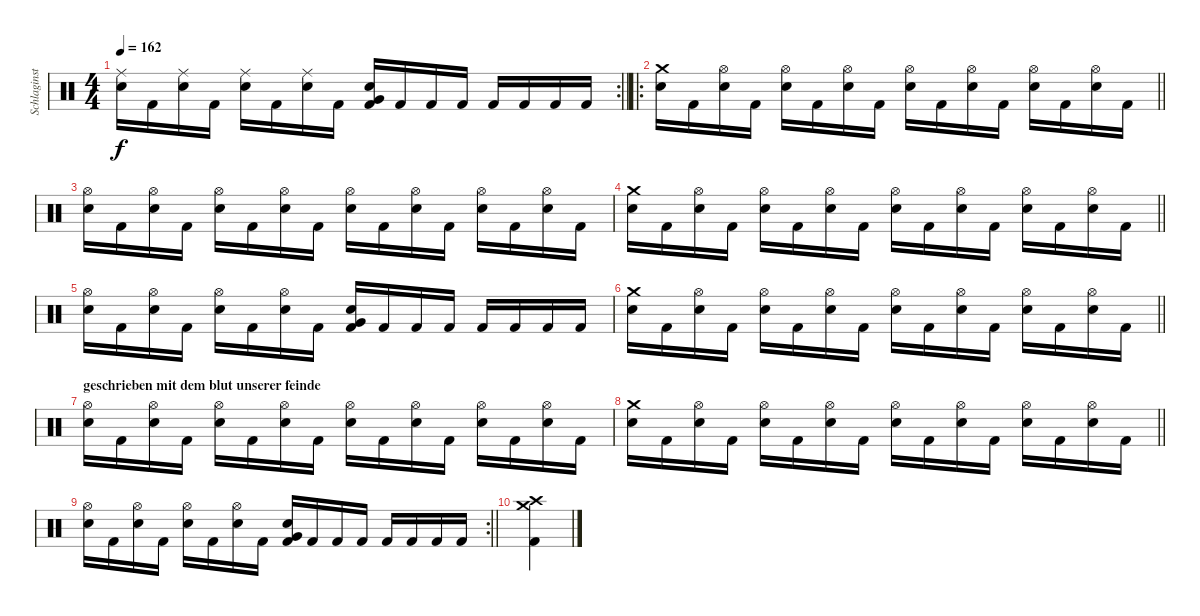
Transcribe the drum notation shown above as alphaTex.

\track ("Schlaginstrumente - Auswahl" "Schlaginst") {instrument percussion}
\staff {score}
\articulation defaults
\rc 2
\ts (4 4)
\tempo 162
\clef neutral
\barLineRight lightlight
\ks c
("Ride (middle)" "Electric Snare (hit)").16{dy f} "Kick (hit) 2".16 ("Ride (middle)" "Electric Snare (hit)").16 "Kick (hit) 2".16 ("Ride (middle)" "Electric Snare (hit)").16 "Kick (hit) 2".16 ("Ride (middle)" "Electric Snare (hit)").16 "Kick (hit) 2".16 ("Very Low Tom (hit)" "Electric Snare (hit)" "Kick (hit) 2").16 "Kick (hit) 2".16 "Kick (hit) 2".16 "Kick (hit) 2".16 "Kick (hit) 2".16 "Kick (hit) 2".16 "Kick (hit) 2".16 "Kick (hit) 2".16 |
\ro
\barLineRight lightlight
("Crash medium (hit)" "Electric Snare (hit)").16 "Kick (hit) 2".16 ("Hi-Hat (open)" "Electric Snare (hit)").16 "Kick (hit) 2".16 ("Hi-Hat (open)" "Electric Snare (hit)").16 "Kick (hit) 2".16 ("Hi-Hat (open)" "Electric Snare (hit)").16 "Kick (hit) 2".16 ("Hi-Hat (open)" "Electric Snare (hit)").16 "Kick (hit) 2".16 ("Hi-Hat (open)" "Electric Snare (hit)").16 "Kick (hit) 2".16 ("Hi-Hat (open)" "Electric Snare (hit)").16 "Kick (hit) 2".16 ("Hi-Hat (open)" "Electric Snare (hit)").16 "Kick (hit) 2".16 |
("Hi-Hat (open)" "Electric Snare (hit)").16 "Kick (hit) 2".16 ("Hi-Hat (open)" "Electric Snare (hit)").16 "Kick (hit) 2".16 ("Hi-Hat (open)" "Electric Snare (hit)").16 "Kick (hit) 2".16 ("Hi-Hat (open)" "Electric Snare (hit)").16 "Kick (hit) 2".16 ("Hi-Hat (open)" "Electric Snare (hit)").16 "Kick (hit) 2".16 ("Hi-Hat (open)" "Electric Snare (hit)").16 "Kick (hit) 2".16 ("Hi-Hat (open)" "Electric Snare (hit)").16 "Kick (hit) 2".16 ("Hi-Hat (open)" "Electric Snare (hit)").16 "Kick (hit) 2".16 |
\barLineRight lightlight
("Crash medium (hit)" "Electric Snare (hit)").16 "Kick (hit) 2".16 ("Hi-Hat (open)" "Electric Snare (hit)").16 "Kick (hit) 2".16 ("Hi-Hat (open)" "Electric Snare (hit)").16 "Kick (hit) 2".16 ("Hi-Hat (open)" "Electric Snare (hit)").16 "Kick (hit) 2".16 ("Hi-Hat (open)" "Electric Snare (hit)").16 "Kick (hit) 2".16 ("Hi-Hat (open)" "Electric Snare (hit)").16 "Kick (hit) 2".16 ("Hi-Hat (open)" "Electric Snare (hit)").16 "Kick (hit) 2".16 ("Hi-Hat (open)" "Electric Snare (hit)").16 "Kick (hit) 2".16 |
("Hi-Hat (open)" "Electric Snare (hit)").16 "Kick (hit) 2".16 ("Hi-Hat (open)" "Electric Snare (hit)").16 "Kick (hit) 2".16 ("Hi-Hat (open)" "Electric Snare (hit)").16 "Kick (hit) 2".16 ("Hi-Hat (open)" "Electric Snare (hit)").16 "Kick (hit) 2".16 ("Very Low Tom (hit)" "Electric Snare (hit)" "Kick (hit) 2").16 "Kick (hit) 2".16 "Kick (hit) 2".16 "Kick (hit) 2".16 "Kick (hit) 2".16 "Kick (hit) 2".16 "Kick (hit) 2".16 "Kick (hit) 2".16 |
\barLineRight lightlight
("Crash medium (hit)" "Electric Snare (hit)").16 "Kick (hit) 2".16 ("Hi-Hat (open)" "Electric Snare (hit)").16 "Kick (hit) 2".16 ("Hi-Hat (open)" "Electric Snare (hit)").16 "Kick (hit) 2".16 ("Hi-Hat (open)" "Electric Snare (hit)").16 "Kick (hit) 2".16 ("Hi-Hat (open)" "Electric Snare (hit)").16 "Kick (hit) 2".16 ("Hi-Hat (open)" "Electric Snare (hit)").16 "Kick (hit) 2".16 ("Hi-Hat (open)" "Electric Snare (hit)").16 "Kick (hit) 2".16 ("Hi-Hat (open)" "Electric Snare (hit)").16 "Kick (hit) 2".16 |
\section ("" "geschrieben mit dem blut unserer feinde")
("Hi-Hat (open)" "Electric Snare (hit)").16 "Kick (hit) 2".16 ("Hi-Hat (open)" "Electric Snare (hit)").16 "Kick (hit) 2".16 ("Hi-Hat (open)" "Electric Snare (hit)").16 "Kick (hit) 2".16 ("Hi-Hat (open)" "Electric Snare (hit)").16 "Kick (hit) 2".16 ("Hi-Hat (open)" "Electric Snare (hit)").16 "Kick (hit) 2".16 ("Hi-Hat (open)" "Electric Snare (hit)").16 "Kick (hit) 2".16 ("Hi-Hat (open)" "Electric Snare (hit)").16 "Kick (hit) 2".16 ("Hi-Hat (open)" "Electric Snare (hit)").16 "Kick (hit) 2".16 |
\barLineRight lightlight
("Crash medium (hit)" "Electric Snare (hit)").16 "Kick (hit) 2".16 ("Hi-Hat (open)" "Electric Snare (hit)").16 "Kick (hit) 2".16 ("Hi-Hat (open)" "Electric Snare (hit)").16 "Kick (hit) 2".16 ("Hi-Hat (open)" "Electric Snare (hit)").16 "Kick (hit) 2".16 ("Hi-Hat (open)" "Electric Snare (hit)").16 "Kick (hit) 2".16 ("Hi-Hat (open)" "Electric Snare (hit)").16 "Kick (hit) 2".16 ("Hi-Hat (open)" "Electric Snare (hit)").16 "Kick (hit) 2".16 ("Hi-Hat (open)" "Electric Snare (hit)").16 "Kick (hit) 2".16 |
\rc 2
\barLineRight lightlight
("Hi-Hat (open)" "Electric Snare (hit)").16 "Kick (hit) 2".16 ("Hi-Hat (open)" "Electric Snare (hit)").16 "Kick (hit) 2".16 ("Hi-Hat (open)" "Electric Snare (hit)").16 "Kick (hit) 2".16 ("Hi-Hat (open)" "Electric Snare (hit)").16 "Kick (hit) 2".16 ("Very Low Tom (hit)" "Electric Snare (hit)" "Kick (hit) 2").16 "Kick (hit) 2".16 "Kick (hit) 2".16 "Kick (hit) 2".16 "Kick (hit) 2".16 "Kick (hit) 2".16 "Kick (hit) 2".16 "Kick (hit) 2".16 |
("Crash high (hit)" "Crash medium (hit)" "Kick (hit) 2").4
